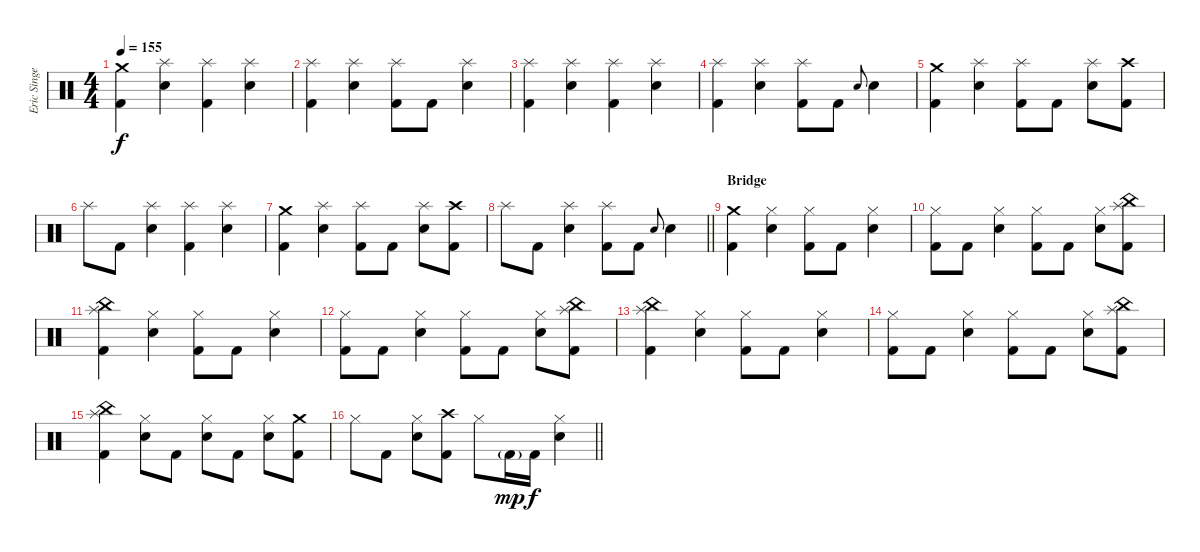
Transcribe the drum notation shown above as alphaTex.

\track ("Eric Singer" "Eric Singe") {instrument percussion}
\staff {score}
\articulation defaults
\ts (4 4)
\tempo 155
\clef neutral
\ks c
("Crash medium (hit)" "Kick (hit) 2").4{dy f} ("Splash (hit)" "Snare (hit) 2").4 ("Splash (hit)" "Kick (hit) 2").4 ("Splash (hit)" "Snare (hit) 2").4 |
("Splash (hit)" "Kick (hit) 2").4 ("Splash (hit)" "Snare (hit) 2").4 ("Splash (hit)" "Kick (hit) 2").8 "Kick (hit) 2".8 ("Splash (hit)" "Snare (hit) 2").4 |
("Splash (hit)" "Kick (hit) 2").4 ("Splash (hit)" "Snare (hit) 2").4 ("Splash (hit)" "Kick (hit) 2").4 ("Splash (hit)" "Snare (hit) 2").4 |
("Splash (hit)" "Kick (hit) 2").4 ("Splash (hit)" "Snare (hit) 2").4 ("Splash (hit)" "Kick (hit) 2").8 "Kick (hit) 2".8 "Snare (hit) 2".8{gr onbeat} "Snare (hit) 2".4 |
("Crash medium (hit)" "Kick (hit) 2").4 ("Splash (hit)" "Snare (hit) 2").4 ("Splash (hit)" "Kick (hit) 2").8 "Kick (hit) 2".8 ("Splash (hit)" "Snare (hit) 2").8 ("Crash high (hit)" "Kick (hit) 2").8 |
"Splash (hit)".8 "Kick (hit) 2".8 ("Splash (hit)" "Snare (hit) 2").4 ("Splash (hit)" "Kick (hit) 2").4 ("Splash (hit)" "Snare (hit) 2").4 |
("Crash medium (hit)" "Kick (hit) 2").4 ("Splash (hit)" "Snare (hit) 2").4 ("Splash (hit)" "Kick (hit) 2").8 "Kick (hit) 2".8 ("Splash (hit)" "Snare (hit) 2").8 ("Crash high (hit)" "Kick (hit) 2").8 |
\barLineRight lightlight "Splash (hit)".8 "Kick (hit) 2".8
("Splash (hit)" "Snare (hit) 2").4 ("Splash (hit)" "Kick (hit) 2").8 "Kick (hit) 2".8 "Snare (hit) 2".8{gr onbeat} "Snare (hit) 2".4 |
\section ("" "Bridge")
("Crash medium (hit)" "Kick (hit) 2").4 ("Hi-Hat (closed)" "Snare (hit) 2").4 ("Hi-Hat (closed)" "Kick (hit) 2").8 "Kick (hit) 2".8 ("Hi-Hat (closed)" "Snare (hit) 2").4 |
("Hi-Hat (closed)" "Kick (hit) 2").8 "Kick (hit) 2".8 ("Hi-Hat (closed)" "Snare (hit) 2").4 ("Hi-Hat (closed)" "Kick (hit) 2").8 "Kick (hit) 2".8 ("Hi-Hat (closed)" "Snare (hit) 2").8 ("Splash (hit)" "China (hit)" "Kick (hit) 2").8 |
("Splash (hit)" "China (hit)" "Kick (hit) 2").4 ("Hi-Hat (closed)" "Snare (hit) 2").4 ("Hi-Hat (closed)" "Kick (hit) 2").8 "Kick (hit) 2".8 ("Hi-Hat (closed)" "Snare (hit) 2").4 |
("Hi-Hat (closed)" "Kick (hit) 2").8 "Kick (hit) 2".8 ("Hi-Hat (closed)" "Snare (hit) 2").4 ("Hi-Hat (closed)" "Kick (hit) 2").8 "Kick (hit) 2".8 ("Hi-Hat (closed)" "Snare (hit) 2").8 ("Splash (hit)" "China (hit)" "Kick (hit) 2").8 |
("Splash (hit)" "China (hit)" "Kick (hit) 2").4 ("Hi-Hat (closed)" "Snare (hit) 2").4 ("Hi-Hat (closed)" "Kick (hit) 2").8 "Kick (hit) 2".8 ("Hi-Hat (closed)" "Snare (hit) 2").4 |
("Hi-Hat (closed)" "Kick (hit) 2").8 "Kick (hit) 2".8 ("Hi-Hat (closed)" "Snare (hit) 2").4 ("Hi-Hat (closed)" "Kick (hit) 2").8 "Kick (hit) 2".8 ("Hi-Hat (closed)" "Snare (hit) 2").8 ("Splash (hit)" "China (hit)" "Kick (hit) 2").8 |
("Splash (hit)" "China (hit)" "Kick (hit) 2").4 ("Hi-Hat (closed)" "Snare (hit) 2").8 "Kick (hit) 2".8 ("Hi-Hat (closed)" "Snare (hit) 2").8 "Kick (hit) 2".8 ("Hi-Hat (closed)" "Snare (hit) 2").8 ("Crash medium (hit)" "Kick (hit) 2").8 |
\barLineRight lightlight "Hi-Hat (closed)".8 "Kick (hit) 2".8
("Hi-Hat (closed)" "Snare (hit) 2").8 ("Crash high (hit)" "Kick (hit) 2").8 "Hi-Hat (closed)".8 "Kick (hit) 2"{g}.16{dy mp} "Kick (hit) 2".16{dy f} ("Hi-Hat (closed)" "Snare (hit) 2").4
